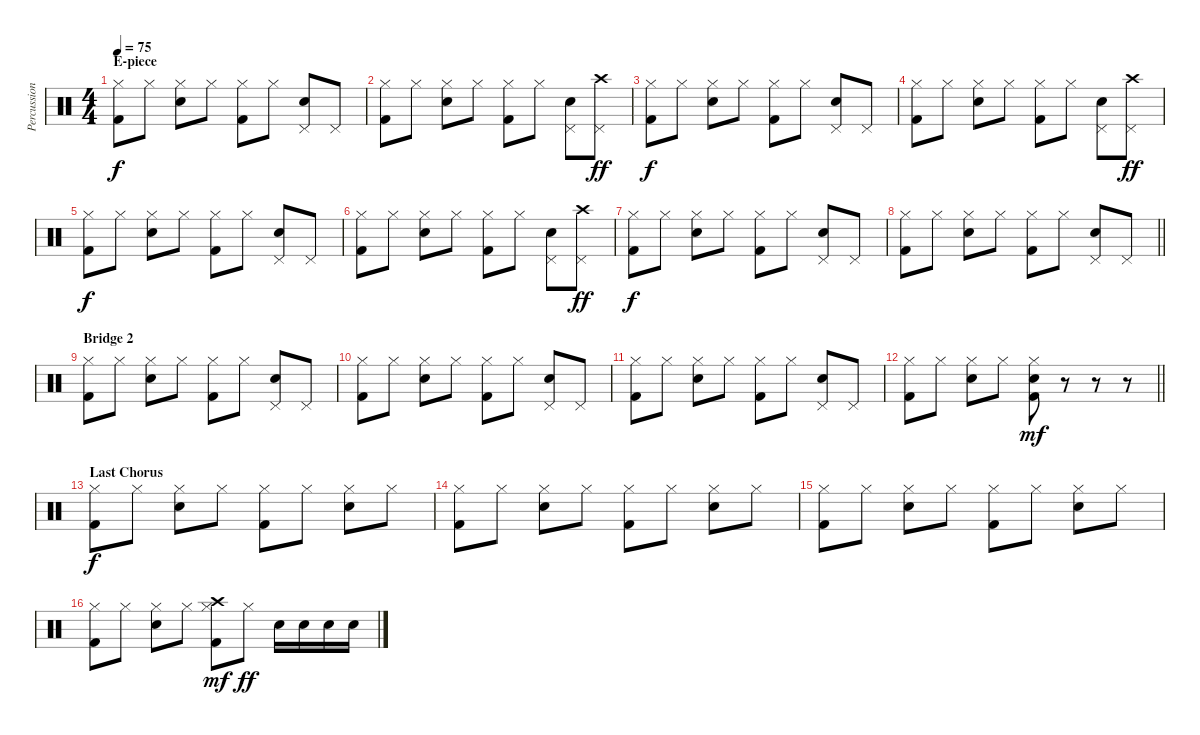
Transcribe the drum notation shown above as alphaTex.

\track ("Percussion" "Percussion") {instrument percussion}
\staff {score}
\articulation defaults
\ts (4 4)
\section ("" "E-piece")
\tempo 75
\clef neutral
\ks c
("Hi-Hat (closed)" "Kick (hit) 2").8{dy f} "Hi-Hat (closed)".8 ("Hi-Hat (closed)" "Snare (hit) 2").8 "Hi-Hat (closed)".8 ("Hi-Hat (closed)" "Kick (hit) 2").8 "Hi-Hat (closed)".8 ("Pedal Hi-Hat (hit)" "Snare (hit) 2").8 "Pedal Hi-Hat (hit)".8 |
("Hi-Hat (closed)" "Kick (hit) 2").8 "Hi-Hat (closed)".8 ("Hi-Hat (closed)" "Snare (hit) 2").8 "Hi-Hat (closed)".8 ("Hi-Hat (closed)" "Kick (hit) 2").8 "Hi-Hat (closed)".8 ("Pedal Hi-Hat (hit)" "Snare (hit) 2").8 ("Pedal Hi-Hat (hit)" "Crash high (hit)").8{dy ff} |
("Hi-Hat (closed)" "Kick (hit) 2").8{dy f} "Hi-Hat (closed)".8 ("Hi-Hat (closed)" "Snare (hit) 2").8 "Hi-Hat (closed)".8 ("Hi-Hat (closed)" "Kick (hit) 2").8 "Hi-Hat (closed)".8 ("Pedal Hi-Hat (hit)" "Snare (hit) 2").8 "Pedal Hi-Hat (hit)".8 |
("Hi-Hat (closed)" "Kick (hit) 2").8 "Hi-Hat (closed)".8 ("Hi-Hat (closed)" "Snare (hit) 2").8 "Hi-Hat (closed)".8 ("Hi-Hat (closed)" "Kick (hit) 2").8 "Hi-Hat (closed)".8 ("Pedal Hi-Hat (hit)" "Snare (hit) 2").8 ("Pedal Hi-Hat (hit)" "Crash high (hit)").8{dy ff} |
("Hi-Hat (closed)" "Kick (hit) 2").8{dy f} "Hi-Hat (closed)".8 ("Hi-Hat (closed)" "Snare (hit) 2").8 "Hi-Hat (closed)".8 ("Hi-Hat (closed)" "Kick (hit) 2").8 "Hi-Hat (closed)".8 ("Pedal Hi-Hat (hit)" "Snare (hit) 2").8 "Pedal Hi-Hat (hit)".8 |
("Hi-Hat (closed)" "Kick (hit) 2").8 "Hi-Hat (closed)".8 ("Hi-Hat (closed)" "Snare (hit) 2").8 "Hi-Hat (closed)".8 ("Hi-Hat (closed)" "Kick (hit) 2").8 "Hi-Hat (closed)".8 ("Pedal Hi-Hat (hit)" "Snare (hit) 2").8 ("Pedal Hi-Hat (hit)" "Crash high (hit)").8{dy ff} |
("Hi-Hat (closed)" "Kick (hit) 2").8{dy f} "Hi-Hat (closed)".8 ("Hi-Hat (closed)" "Snare (hit) 2").8 "Hi-Hat (closed)".8 ("Hi-Hat (closed)" "Kick (hit) 2").8 "Hi-Hat (closed)".8 ("Pedal Hi-Hat (hit)" "Snare (hit) 2").8 "Pedal Hi-Hat (hit)".8 |
\barLineRight lightlight
("Hi-Hat (closed)" "Kick (hit) 2").8 "Hi-Hat (closed)".8 ("Hi-Hat (closed)" "Snare (hit) 2").8 "Hi-Hat (closed)".8 ("Hi-Hat (closed)" "Kick (hit) 2").8 "Hi-Hat (closed)".8 ("Pedal Hi-Hat (hit)" "Snare (hit) 2").8 "Pedal Hi-Hat (hit)".8 |
\section ("" "Bridge 2")
("Hi-Hat (closed)" "Kick (hit) 2").8 "Hi-Hat (closed)".8 ("Hi-Hat (closed)" "Snare (hit) 2").8 "Hi-Hat (closed)".8 ("Hi-Hat (closed)" "Kick (hit) 2").8 "Hi-Hat (closed)".8 ("Pedal Hi-Hat (hit)" "Snare (hit) 2").8 "Pedal Hi-Hat (hit)".8 |
("Hi-Hat (closed)" "Kick (hit) 2").8 "Hi-Hat (closed)".8 ("Hi-Hat (closed)" "Snare (hit) 2").8 "Hi-Hat (closed)".8 ("Hi-Hat (closed)" "Kick (hit) 2").8 "Hi-Hat (closed)".8 ("Pedal Hi-Hat (hit)" "Snare (hit) 2").8 "Pedal Hi-Hat (hit)".8 |
("Hi-Hat (closed)" "Kick (hit) 2").8 "Hi-Hat (closed)".8 ("Hi-Hat (closed)" "Snare (hit) 2").8 "Hi-Hat (closed)".8 ("Hi-Hat (closed)" "Kick (hit) 2").8 "Hi-Hat (closed)".8 ("Pedal Hi-Hat (hit)" "Snare (hit) 2").8 "Pedal Hi-Hat (hit)".8 |
\barLineRight lightlight
("Hi-Hat (closed)" "Kick (hit) 2").8 "Hi-Hat (closed)".8 ("Hi-Hat (closed)" "Snare (hit) 2").8 "Hi-Hat (closed)".8 ("Hi-Hat (closed)" "Kick (hit) 2" "Snare (hit) 2").8{dy mf} r.8 r.8 r.8 |
\section ("" "Last Chorus")
("Hi-Hat (closed)" "Kick (hit) 2").8{dy f} "Hi-Hat (closed)".8 ("Hi-Hat (closed)" "Snare (hit) 2").8 "Hi-Hat (closed)".8 ("Hi-Hat (closed)" "Kick (hit) 2").8 "Hi-Hat (closed)".8 ("Hi-Hat (closed)" "Snare (hit) 2").8 "Hi-Hat (closed)".8 |
("Hi-Hat (closed)" "Kick (hit) 2").8 "Hi-Hat (closed)".8 ("Hi-Hat (closed)" "Snare (hit) 2").8 "Hi-Hat (closed)".8 ("Hi-Hat (closed)" "Kick (hit) 2").8 "Hi-Hat (closed)".8 ("Hi-Hat (closed)" "Snare (hit) 2").8 "Hi-Hat (closed)".8 |
("Hi-Hat (closed)" "Kick (hit) 2").8 "Hi-Hat (closed)".8 ("Hi-Hat (closed)" "Snare (hit) 2").8 "Hi-Hat (closed)".8 ("Hi-Hat (closed)" "Kick (hit) 2").8 "Hi-Hat (closed)".8 ("Hi-Hat (closed)" "Snare (hit) 2").8 "Hi-Hat (closed)".8 |
("Hi-Hat (closed)" "Kick (hit) 2").8 "Hi-Hat (closed)".8 ("Hi-Hat (closed)" "Snare (hit) 2").8 "Hi-Hat (closed)".8 ("Hi-Hat (closed)" "Kick (hit) 2" "Crash high (hit)").8{dy mf} "Hi-Hat (closed)".8{dy ff} "Snare (hit) 2".16 "Snare (hit) 2".16 "Snare (hit) 2".16 "Snare (hit) 2".16
